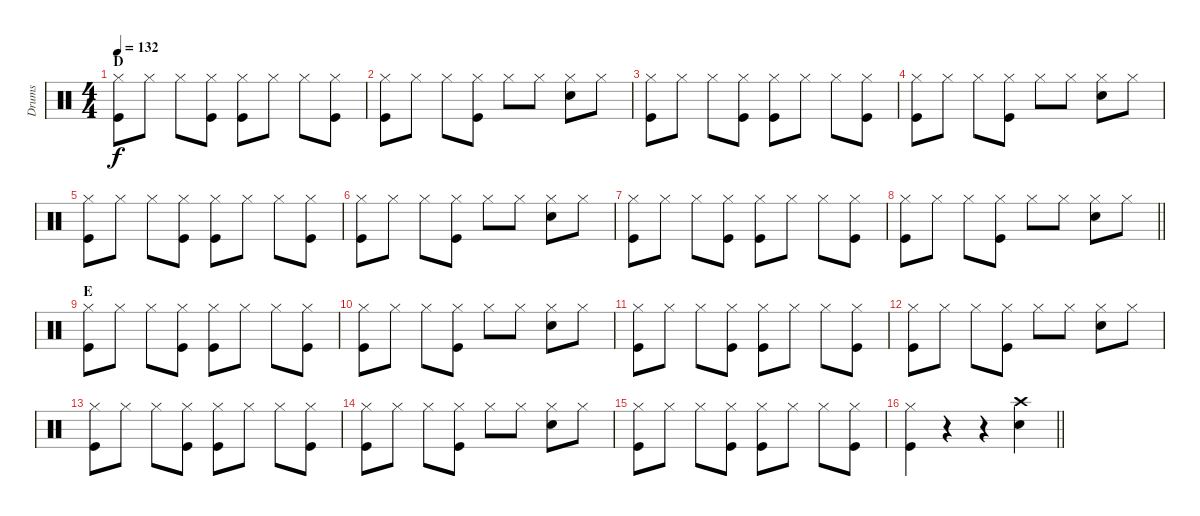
\track ("Drums" "Drums") {instrument percussion}
\staff {score}
\articulation defaults
\ts (4 4)
\section ("" "D")
\tempo 132
\clef neutral
\ks c
("Hi-Hat (closed)" "Kick (hit)").8{dy f} "Hi-Hat (closed)".8 "Hi-Hat (closed)".8 ("Hi-Hat (closed)" "Kick (hit)").8 ("Hi-Hat (closed)" "Kick (hit)").8 "Hi-Hat (closed)".8 "Hi-Hat (closed)".8 ("Hi-Hat (closed)" "Kick (hit)").8 |
("Hi-Hat (closed)" "Kick (hit)").8 "Hi-Hat (closed)".8 "Hi-Hat (closed)".8 ("Hi-Hat (closed)" "Kick (hit)").8 "Hi-Hat (closed)".8 "Hi-Hat (closed)".8 ("Hi-Hat (closed)" "Electric Snare (hit)").8 "Hi-Hat (closed)".8 |
("Hi-Hat (closed)" "Kick (hit)").8 "Hi-Hat (closed)".8 "Hi-Hat (closed)".8 ("Hi-Hat (closed)" "Kick (hit)").8 ("Hi-Hat (closed)" "Kick (hit)").8 "Hi-Hat (closed)".8 "Hi-Hat (closed)".8 ("Hi-Hat (closed)" "Kick (hit)").8 |
("Hi-Hat (closed)" "Kick (hit)").8 "Hi-Hat (closed)".8 "Hi-Hat (closed)".8 ("Hi-Hat (closed)" "Kick (hit)").8 "Hi-Hat (closed)".8 "Hi-Hat (closed)".8 ("Hi-Hat (closed)" "Electric Snare (hit)").8 "Hi-Hat (closed)".8 |
("Hi-Hat (closed)" "Kick (hit)").8 "Hi-Hat (closed)".8 "Hi-Hat (closed)".8 ("Hi-Hat (closed)" "Kick (hit)").8 ("Hi-Hat (closed)" "Kick (hit)").8 "Hi-Hat (closed)".8 "Hi-Hat (closed)".8 ("Hi-Hat (closed)" "Kick (hit)").8 |
("Hi-Hat (closed)" "Kick (hit)").8 "Hi-Hat (closed)".8 "Hi-Hat (closed)".8 ("Hi-Hat (closed)" "Kick (hit)").8 "Hi-Hat (closed)".8 "Hi-Hat (closed)".8 ("Hi-Hat (closed)" "Electric Snare (hit)").8 "Hi-Hat (closed)".8 |
("Hi-Hat (closed)" "Kick (hit)").8 "Hi-Hat (closed)".8 "Hi-Hat (closed)".8 ("Hi-Hat (closed)" "Kick (hit)").8 ("Hi-Hat (closed)" "Kick (hit)").8 "Hi-Hat (closed)".8 "Hi-Hat (closed)".8 ("Hi-Hat (closed)" "Kick (hit)").8 |
\barLineRight lightlight
("Hi-Hat (closed)" "Kick (hit)").8 "Hi-Hat (closed)".8 "Hi-Hat (closed)".8 ("Hi-Hat (closed)" "Kick (hit)").8 "Hi-Hat (closed)".8 "Hi-Hat (closed)".8 ("Hi-Hat (closed)" "Electric Snare (hit)").8 "Hi-Hat (closed)".8 |
\section ("" "E")
("Hi-Hat (closed)" "Kick (hit)").8 "Hi-Hat (closed)".8 "Hi-Hat (closed)".8 ("Hi-Hat (closed)" "Kick (hit)").8 ("Hi-Hat (closed)" "Kick (hit)").8 "Hi-Hat (closed)".8 "Hi-Hat (closed)".8 ("Hi-Hat (closed)" "Kick (hit)").8 |
("Hi-Hat (closed)" "Kick (hit)").8 "Hi-Hat (closed)".8 "Hi-Hat (closed)".8 ("Hi-Hat (closed)" "Kick (hit)").8 "Hi-Hat (closed)".8 "Hi-Hat (closed)".8 ("Hi-Hat (closed)" "Electric Snare (hit)").8 "Hi-Hat (closed)".8 |
("Hi-Hat (closed)" "Kick (hit)").8 "Hi-Hat (closed)".8 "Hi-Hat (closed)".8 ("Hi-Hat (closed)" "Kick (hit)").8 ("Hi-Hat (closed)" "Kick (hit)").8 "Hi-Hat (closed)".8 "Hi-Hat (closed)".8 ("Hi-Hat (closed)" "Kick (hit)").8 |
("Hi-Hat (closed)" "Kick (hit)").8 "Hi-Hat (closed)".8 "Hi-Hat (closed)".8 ("Hi-Hat (closed)" "Kick (hit)").8 "Hi-Hat (closed)".8 "Hi-Hat (closed)".8 ("Hi-Hat (closed)" "Electric Snare (hit)").8 "Hi-Hat (closed)".8 |
("Hi-Hat (closed)" "Kick (hit)").8 "Hi-Hat (closed)".8 "Hi-Hat (closed)".8 ("Hi-Hat (closed)" "Kick (hit)").8 ("Hi-Hat (closed)" "Kick (hit)").8 "Hi-Hat (closed)".8 "Hi-Hat (closed)".8 ("Hi-Hat (closed)" "Kick (hit)").8 |
("Hi-Hat (closed)" "Kick (hit)").8 "Hi-Hat (closed)".8 "Hi-Hat (closed)".8 ("Hi-Hat (closed)" "Kick (hit)").8 "Hi-Hat (closed)".8 "Hi-Hat (closed)".8 ("Hi-Hat (closed)" "Electric Snare (hit)").8 "Hi-Hat (closed)".8 |
("Hi-Hat (closed)" "Kick (hit)").8 "Hi-Hat (closed)".8 "Hi-Hat (closed)".8 ("Hi-Hat (closed)" "Kick (hit)").8 ("Hi-Hat (closed)" "Kick (hit)").8 "Hi-Hat (closed)".8 "Hi-Hat (closed)".8 ("Hi-Hat (closed)" "Kick (hit)").8 |
\barLineRight lightlight
("Hi-Hat (closed)" "Kick (hit)").4 r.4 r.4 ("Crash high (hit)" "Electric Snare (hit)").4
